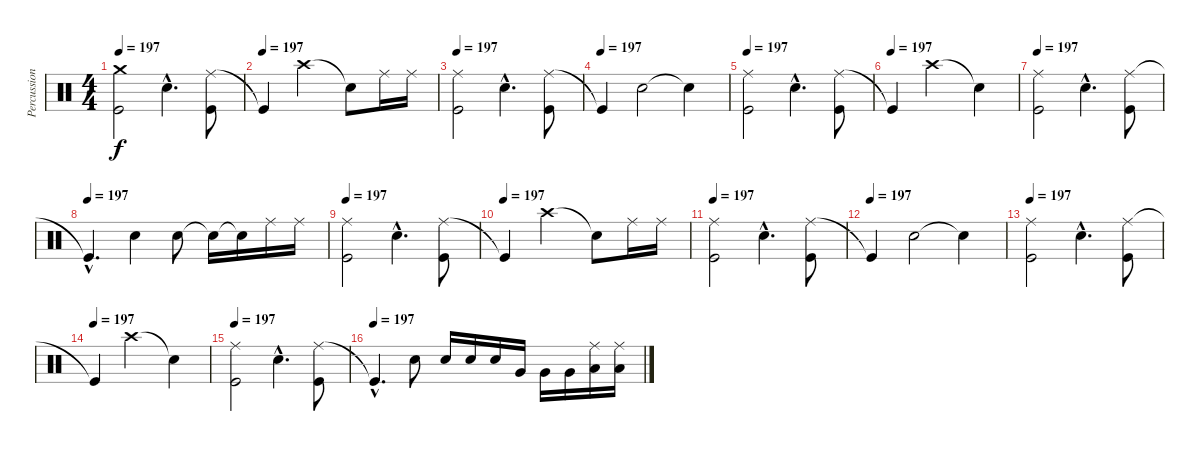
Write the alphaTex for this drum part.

\track ("Percussion" "Percussion") {instrument percussion}
\staff {score}
\articulation defaults
\ts (4 4)
\tempo 197
\clef neutral
\ks c
("Crash medium (hit)" "Kick (hit)").2{dy f} "Electric Snare (hit)"{hac}.4{d} ("Ride (middle)" "Kick (hit)").8 |
\tempo (197)
"Kick (hit)"{t}.4 "Crash high (hit)".2 "Snare (hit)"{t}.8 "Ride (middle)".16 "Ride (middle)".16 |
\tempo 197
("Ride (middle)" "Kick (hit)").2 "Electric Snare (hit)"{hac}.4{d} ("Ride (middle)" "Kick (hit)").8 |
\tempo (197)
"Kick (hit)"{t}.4 "Electric Snare (hit)".2 "Snare (hit)"{t}.4 |
\tempo 197
("Ride (middle)" "Kick (hit)").2 "Electric Snare (hit)"{hac}.4{d} ("Ride (middle)" "Kick (hit)").8 |
\tempo (197)
"Kick (hit)"{t}.4 "Crash high (hit)".2 "Snare (hit)"{t}.4 |
\tempo 197
("Ride (middle)" "Kick (hit)").2 "Electric Snare (hit)"{hac}.4{d} ("Ride (middle)" "Kick (hit)").8 |
\tempo (197)
"Kick (hit)"{hac t}.4{d} "Electric Snare (hit)".4 "Electric Snare (hit)".8 "Snare (hit)"{t}.16 "Snare (hit)"{t}.16 "Ride (middle)".16 "Ride (middle)".16 |
\tempo 197
("Ride (middle)" "Kick (hit)").2 "Electric Snare (hit)"{hac}.4{d} ("Ride (middle)" "Kick (hit)").8 |
\tempo (197)
"Kick (hit)"{t}.4 "Crash high (hit)".2 "Snare (hit)"{t}.8 "Ride (middle)".16 "Ride (middle)".16 |
\tempo 197
("Ride (middle)" "Kick (hit)").2 "Electric Snare (hit)"{hac}.4{d} ("Ride (middle)" "Kick (hit)").8 |
\tempo (197)
"Kick (hit)"{t}.4 "Electric Snare (hit)".2 "Snare (hit)"{t}.4 |
\tempo 197
("Ride (middle)" "Kick (hit)").2 "Electric Snare (hit)"{hac}.4{d} ("Ride (middle)" "Kick (hit)").8 |
\tempo (197)
"Kick (hit)"{t}.4 "Crash high (hit)".2 "Snare (hit)"{t}.4 |
\tempo 197
("Ride (middle)" "Kick (hit)").2 "Electric Snare (hit)"{hac}.4{d} ("Ride (middle)" "Kick (hit)").8 |
\tempo (197)
"Kick (hit)"{hac t}.4{d} "Electric Snare (hit)".8 "Electric Snare (hit)".16 "Electric Snare (hit)".16 "Electric Snare (hit)".16 "Very Low Tom (hit)".16 "Very Low Tom (hit)".16 "Very Low Tom (hit)".16 ("Ride (middle)" "Low Floor Tom (hit)").16 ("Ride (middle)" "Low Floor Tom (hit)").16
